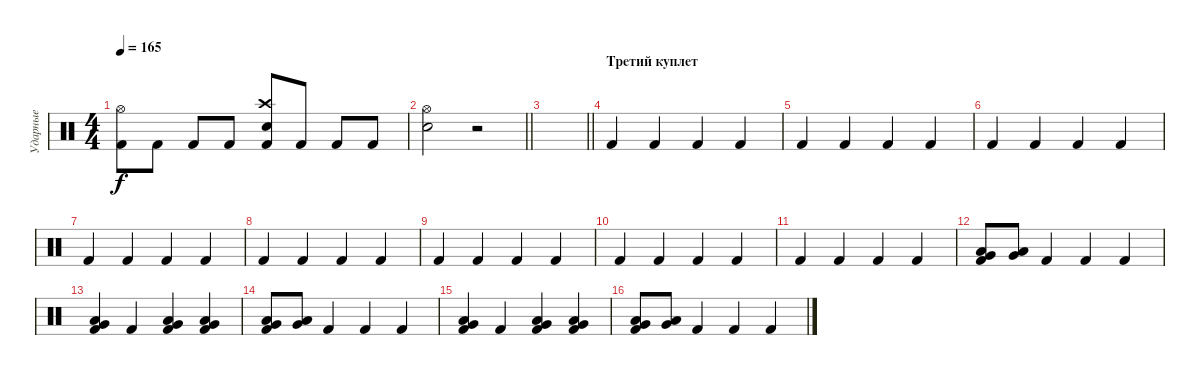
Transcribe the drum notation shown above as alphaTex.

\track ("Ударные" "Ударные") {instrument percussion}
\staff {score}
\articulation defaults
\ts (4 4)
\tempo 165
\clef neutral
\ks c
("Kick (hit) 2" "Hi-Hat (open)").8{dy f} "Kick (hit) 2".8 "Kick (hit) 2".8 "Kick (hit) 2".8 ("Kick (hit) 2" "Crash high (hit)" "Snare (hit) 2").8 "Kick (hit) 2".8 "Kick (hit) 2".8 "Kick (hit) 2".8 |
\barLineRight lightlight
("Snare (hit) 2" "Hi-Hat (open)").2 r.2 |
\barLineRight lightlight
|
\section ("" "Третий куплет ")
"Kick (hit) 2".4 "Kick (hit) 2".4 "Kick (hit) 2".4 "Kick (hit) 2".4 |
"Kick (hit) 2".4 "Kick (hit) 2".4 "Kick (hit) 2".4 "Kick (hit) 2".4 |
"Kick (hit) 2".4 "Kick (hit) 2".4 "Kick (hit) 2".4 "Kick (hit) 2".4 |
"Kick (hit) 2".4 "Kick (hit) 2".4 "Kick (hit) 2".4 "Kick (hit) 2".4 |
"Kick (hit) 2".4 "Kick (hit) 2".4 "Kick (hit) 2".4 "Kick (hit) 2".4 |
"Kick (hit) 2".4 "Kick (hit) 2".4 "Kick (hit) 2".4 "Kick (hit) 2".4 |
"Kick (hit) 2".4 "Kick (hit) 2".4 "Kick (hit) 2".4 "Kick (hit) 2".4 |
"Kick (hit) 2".4 "Kick (hit) 2".4 "Kick (hit) 2".4 "Kick (hit) 2".4 |
("Kick (hit) 2" "Very Low Tom (hit)" "Low Floor Tom (hit)").8 ("Low Floor Tom (hit)" "Very Low Tom (hit)").8 "Kick (hit) 2".4 "Kick (hit) 2".4 "Kick (hit) 2".4 |
("Kick (hit) 2" "Very Low Tom (hit)" "Low Floor Tom (hit)").4 "Kick (hit) 2".4 ("Kick (hit) 2" "Low Floor Tom (hit)" "Very Low Tom (hit)").4 ("Kick (hit) 2" "Low Floor Tom (hit)" "Very Low Tom (hit)").4 |
("Kick (hit) 2" "Very Low Tom (hit)" "Low Floor Tom (hit)").8 ("Low Floor Tom (hit)" "Very Low Tom (hit)").8 "Kick (hit) 2".4 "Kick (hit) 2".4 "Kick (hit) 2".4 |
("Kick (hit) 2" "Very Low Tom (hit)" "Low Floor Tom (hit)").4 "Kick (hit) 2".4 ("Kick (hit) 2" "Low Floor Tom (hit)" "Very Low Tom (hit)").4 ("Kick (hit) 2" "Low Floor Tom (hit)" "Very Low Tom (hit)").4 |
("Kick (hit) 2" "Very Low Tom (hit)" "Low Floor Tom (hit)").8 ("Low Floor Tom (hit)" "Very Low Tom (hit)").8 "Kick (hit) 2".4 "Kick (hit) 2".4 "Kick (hit) 2".4
